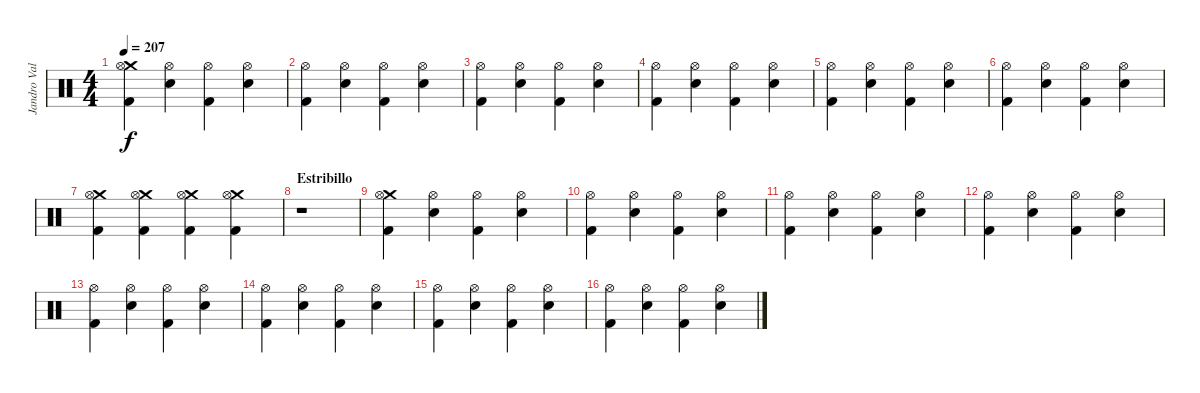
\track ("Jandro Valázquez" "Jandro Val") {instrument percussion}
\staff {score}
\articulation defaults
\ts (4 4)
\tempo 207
\clef neutral
\ks c
("Crash medium (hit)" "Hi-Hat (open)" "Kick (hit) 2").4{dy f} ("Hi-Hat (open)" "Snare (hit) 2").4 ("Hi-Hat (open)" "Kick (hit) 2").4 ("Hi-Hat (open)" "Snare (hit) 2").4 |
("Hi-Hat (open)" "Kick (hit) 2").4 ("Hi-Hat (open)" "Snare (hit) 2").4 ("Hi-Hat (open)" "Kick (hit) 2").4 ("Hi-Hat (open)" "Snare (hit) 2").4 |
("Hi-Hat (open)" "Kick (hit) 2").4 ("Hi-Hat (open)" "Snare (hit) 2").4 ("Hi-Hat (open)" "Kick (hit) 2").4 ("Hi-Hat (open)" "Snare (hit) 2").4 |
("Hi-Hat (open)" "Kick (hit) 2").4 ("Hi-Hat (open)" "Snare (hit) 2").4 ("Hi-Hat (open)" "Kick (hit) 2").4 ("Hi-Hat (open)" "Snare (hit) 2").4 |
("Hi-Hat (open)" "Kick (hit) 2").4 ("Hi-Hat (open)" "Snare (hit) 2").4 ("Hi-Hat (open)" "Kick (hit) 2").4 ("Hi-Hat (open)" "Snare (hit) 2").4 |
("Hi-Hat (open)" "Kick (hit) 2").4 ("Hi-Hat (open)" "Snare (hit) 2").4 ("Hi-Hat (open)" "Kick (hit) 2").4 ("Hi-Hat (open)" "Snare (hit) 2").4 |
("Crash medium (hit)" "Hi-Hat (open)" "Kick (hit) 2").4 ("Crash medium (hit)" "Hi-Hat (open)" "Kick (hit) 2").4 ("Crash medium (hit)" "Hi-Hat (open)" "Kick (hit) 2").4 ("Crash medium (hit)" "Hi-Hat (open)" "Kick (hit) 2").4 |
\section ("" "Estribillo")
r.1 |
("Crash medium (hit)" "Hi-Hat (open)" "Kick (hit) 2").4 ("Hi-Hat (open)" "Snare (hit) 2").4 ("Hi-Hat (open)" "Kick (hit) 2").4 ("Hi-Hat (open)" "Snare (hit) 2").4 |
("Hi-Hat (open)" "Kick (hit) 2").4 ("Hi-Hat (open)" "Snare (hit) 2").4 ("Hi-Hat (open)" "Kick (hit) 2").4 ("Hi-Hat (open)" "Snare (hit) 2").4 |
("Hi-Hat (open)" "Kick (hit) 2").4 ("Hi-Hat (open)" "Snare (hit) 2").4 ("Hi-Hat (open)" "Kick (hit) 2").4 ("Hi-Hat (open)" "Snare (hit) 2").4 |
("Hi-Hat (open)" "Kick (hit) 2").4 ("Hi-Hat (open)" "Snare (hit) 2").4 ("Hi-Hat (open)" "Kick (hit) 2").4 ("Hi-Hat (open)" "Snare (hit) 2").4 |
("Hi-Hat (open)" "Kick (hit) 2").4 ("Hi-Hat (open)" "Snare (hit) 2").4 ("Hi-Hat (open)" "Kick (hit) 2").4 ("Hi-Hat (open)" "Snare (hit) 2").4 |
("Hi-Hat (open)" "Kick (hit) 2").4 ("Hi-Hat (open)" "Snare (hit) 2").4 ("Hi-Hat (open)" "Kick (hit) 2").4 ("Hi-Hat (open)" "Snare (hit) 2").4 |
("Hi-Hat (open)" "Kick (hit) 2").4 ("Hi-Hat (open)" "Snare (hit) 2").4 ("Hi-Hat (open)" "Kick (hit) 2").4 ("Hi-Hat (open)" "Snare (hit) 2").4 |
("Hi-Hat (open)" "Kick (hit) 2").4 ("Hi-Hat (open)" "Snare (hit) 2").4 ("Hi-Hat (open)" "Kick (hit) 2").4 ("Hi-Hat (open)" "Snare (hit) 2").4
